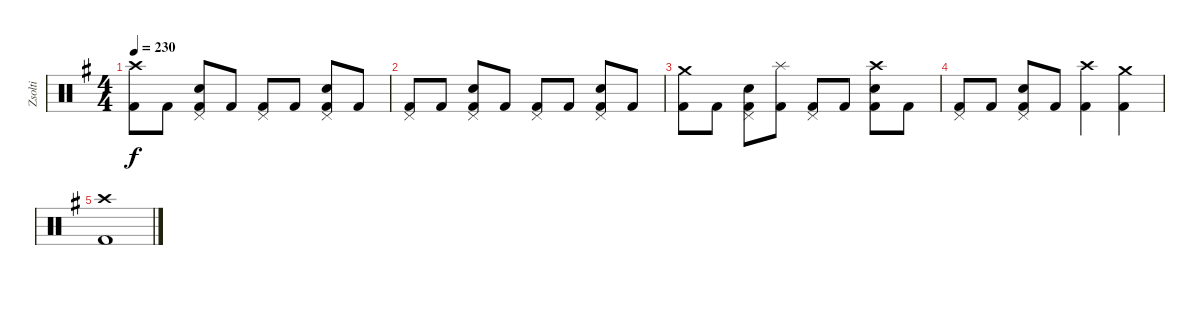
\track ("Zsolti" "Zsolti") {instrument percussion}
\staff {score}
\articulation defaults
\ts (4 4)
\tempo 230
\clef neutral
\ks eminor
("Crash high (hit)" "Kick (hit) 2").8{dy f} "Kick (hit) 2".8 ("Pedal Hi-Hat (hit)" "Snare (hit) 2" "Kick (hit) 2").8 "Kick (hit) 2".8 ("Pedal Hi-Hat (hit)" "Kick (hit) 2").8 "Kick (hit) 2".8 ("Pedal Hi-Hat (hit)" "Snare (hit) 2" "Kick (hit) 2").8 "Kick (hit) 2".8 |
("Pedal Hi-Hat (hit)" "Kick (hit) 2").8 "Kick (hit) 2".8 ("Pedal Hi-Hat (hit)" "Snare (hit) 2" "Kick (hit) 2").8 "Kick (hit) 2".8 ("Pedal Hi-Hat (hit)" "Kick (hit) 2").8 "Kick (hit) 2".8 ("Pedal Hi-Hat (hit)" "Snare (hit) 2" "Kick (hit) 2").8 "Kick (hit) 2".8 |
("Crash medium (hit)" "Kick (hit) 2").8 "Kick (hit) 2".8 ("Pedal Hi-Hat (hit)" "Snare (hit) 2" "Kick (hit) 2").8 ("Splash (hit)" "Kick (hit) 2").8 ("Pedal Hi-Hat (hit)" "Kick (hit) 2").8 "Kick (hit) 2".8 ("Crash high (hit)" "Snare (hit) 2" "Kick (hit) 2").8 "Kick (hit) 2".8 |
("Pedal Hi-Hat (hit)" "Kick (hit) 2").8 "Kick (hit) 2".8 ("Pedal Hi-Hat (hit)" "Snare (hit) 2" "Kick (hit) 2").8 "Kick (hit) 2".8 ("Crash high (hit)" "Kick (hit) 2").4 ("Crash medium (hit)" "Kick (hit) 2").4 |
("Crash high (hit)" "Kick (hit) 2").1
